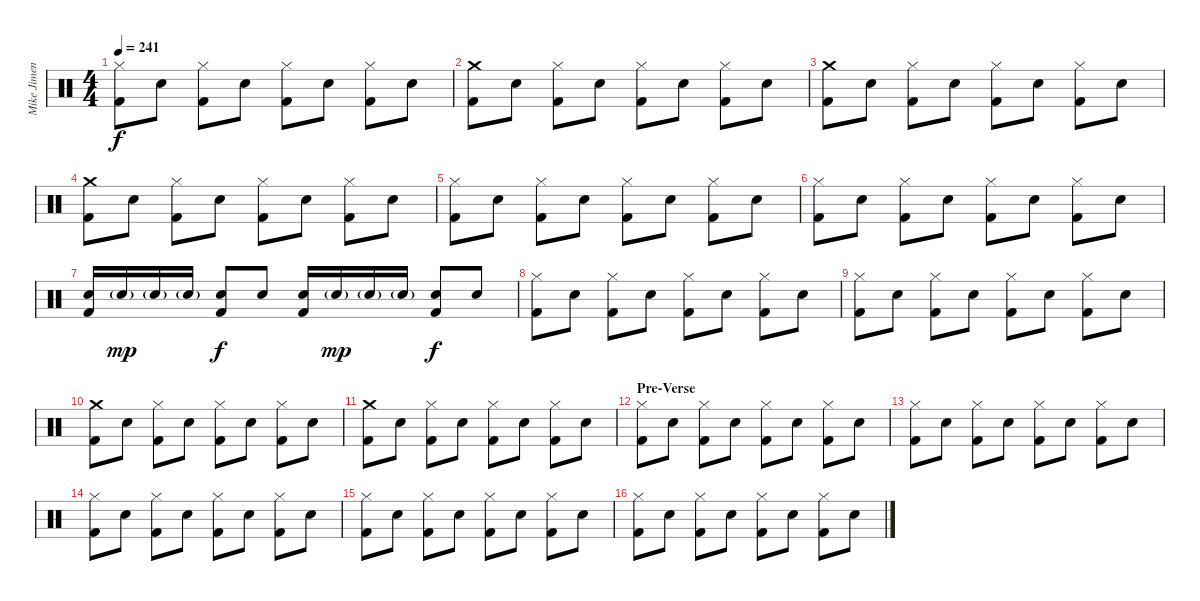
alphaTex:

\track ("Mike Jimenez" "Mike Jimen") {instrument percussion}
\staff {score}
\articulation defaults
\ts (4 4)
\tempo 241
\clef neutral
\ks c
("Hi-Hat (closed)" "Kick (hit) 2").8{dy f} "Electric Snare (hit)".8 ("Hi-Hat (closed)" "Kick (hit) 2").8 "Electric Snare (hit)".8 ("Hi-Hat (closed)" "Kick (hit) 2").8 "Electric Snare (hit)".8 ("Hi-Hat (closed)" "Kick (hit) 2").8 "Electric Snare (hit)".8 |
("Crash medium (hit)" "Kick (hit) 2").8 "Electric Snare (hit)".8 ("Hi-Hat (closed)" "Kick (hit) 2").8 "Electric Snare (hit)".8 ("Hi-Hat (closed)" "Kick (hit) 2").8 "Electric Snare (hit)".8 ("Hi-Hat (closed)" "Kick (hit) 2").8 "Electric Snare (hit)".8 |
("Crash medium (hit)" "Kick (hit) 2").8 "Electric Snare (hit)".8 ("Hi-Hat (closed)" "Kick (hit) 2").8 "Electric Snare (hit)".8 ("Hi-Hat (closed)" "Kick (hit) 2").8 "Electric Snare (hit)".8 ("Hi-Hat (closed)" "Kick (hit) 2").8 "Electric Snare (hit)".8 |
("Crash medium (hit)" "Kick (hit) 2").8 "Electric Snare (hit)".8 ("Hi-Hat (closed)" "Kick (hit) 2").8 "Electric Snare (hit)".8 ("Hi-Hat (closed)" "Kick (hit) 2").8 "Electric Snare (hit)".8 ("Hi-Hat (closed)" "Kick (hit) 2").8 "Electric Snare (hit)".8 |
("Hi-Hat (closed)" "Kick (hit) 2").8 "Electric Snare (hit)".8 ("Hi-Hat (closed)" "Kick (hit) 2").8 "Electric Snare (hit)".8 ("Hi-Hat (closed)" "Kick (hit) 2").8 "Electric Snare (hit)".8 ("Hi-Hat (closed)" "Kick (hit) 2").8 "Electric Snare (hit)".8 |
("Hi-Hat (closed)" "Kick (hit) 2").8 "Electric Snare (hit)".8 ("Hi-Hat (closed)" "Kick (hit) 2").8 "Electric Snare (hit)".8 ("Hi-Hat (closed)" "Kick (hit) 2").8 "Electric Snare (hit)".8 ("Hi-Hat (closed)" "Kick (hit) 2").8 "Electric Snare (hit)".8 |
("Electric Snare (hit)" "Kick (hit) 2").16 "Electric Snare (hit)"{g}.16{dy mp} "Electric Snare (hit)"{g}.16 "Electric Snare (hit)"{g}.16 ("Electric Snare (hit)" "Kick (hit) 2").8{dy f} "Electric Snare (hit)".8 ("Electric Snare (hit)" "Kick (hit) 2").16 "Electric Snare (hit)"{g}.16{dy mp} "Electric Snare (hit)"{g}.16 "Electric Snare (hit)"{g}.16 ("Electric Snare (hit)" "Kick (hit) 2").8{dy f} "Electric Snare (hit)".8 |
("Hi-Hat (closed)" "Kick (hit) 2").8 "Electric Snare (hit)".8 ("Hi-Hat (closed)" "Kick (hit) 2").8 "Electric Snare (hit)".8 ("Hi-Hat (closed)" "Kick (hit) 2").8 "Electric Snare (hit)".8 ("Hi-Hat (closed)" "Kick (hit) 2").8 "Electric Snare (hit)".8 |
("Hi-Hat (closed)" "Kick (hit) 2").8 "Electric Snare (hit)".8 ("Hi-Hat (closed)" "Kick (hit) 2").8 "Electric Snare (hit)".8 ("Hi-Hat (closed)" "Kick (hit) 2").8 "Electric Snare (hit)".8 ("Hi-Hat (closed)" "Kick (hit) 2").8 "Electric Snare (hit)".8 |
("Crash medium (hit)" "Kick (hit) 2").8 "Electric Snare (hit)".8 ("Hi-Hat (closed)" "Kick (hit) 2").8 "Electric Snare (hit)".8 ("Hi-Hat (closed)" "Kick (hit) 2").8 "Electric Snare (hit)".8 ("Hi-Hat (closed)" "Kick (hit) 2").8 "Electric Snare (hit)".8 |
("Crash medium (hit)" "Kick (hit) 2").8 "Electric Snare (hit)".8 ("Hi-Hat (closed)" "Kick (hit) 2").8 "Electric Snare (hit)".8 ("Hi-Hat (closed)" "Kick (hit) 2").8 "Electric Snare (hit)".8 ("Hi-Hat (closed)" "Kick (hit) 2").8 "Electric Snare (hit)".8 |
\section ("" "Pre-Verse")
("Hi-Hat (closed)" "Kick (hit) 2").8 "Electric Snare (hit)".8 ("Hi-Hat (closed)" "Kick (hit) 2").8 "Electric Snare (hit)".8 ("Hi-Hat (closed)" "Kick (hit) 2").8 "Electric Snare (hit)".8 ("Hi-Hat (closed)" "Kick (hit) 2").8 "Electric Snare (hit)".8 |
("Hi-Hat (closed)" "Kick (hit) 2").8 "Electric Snare (hit)".8 ("Hi-Hat (closed)" "Kick (hit) 2").8 "Electric Snare (hit)".8 ("Hi-Hat (closed)" "Kick (hit) 2").8 "Electric Snare (hit)".8 ("Hi-Hat (closed)" "Kick (hit) 2").8 "Electric Snare (hit)".8 |
("Hi-Hat (closed)" "Kick (hit) 2").8 "Electric Snare (hit)".8 ("Hi-Hat (closed)" "Kick (hit) 2").8 "Electric Snare (hit)".8 ("Hi-Hat (closed)" "Kick (hit) 2").8 "Electric Snare (hit)".8 ("Hi-Hat (closed)" "Kick (hit) 2").8 "Electric Snare (hit)".8 |
("Hi-Hat (closed)" "Kick (hit) 2").8 "Electric Snare (hit)".8 ("Hi-Hat (closed)" "Kick (hit) 2").8 "Electric Snare (hit)".8 ("Hi-Hat (closed)" "Kick (hit) 2").8 "Electric Snare (hit)".8 ("Hi-Hat (closed)" "Kick (hit) 2").8 "Electric Snare (hit)".8 |
("Hi-Hat (closed)" "Kick (hit) 2").8 "Electric Snare (hit)".8 ("Hi-Hat (closed)" "Kick (hit) 2").8 "Electric Snare (hit)".8 ("Hi-Hat (closed)" "Kick (hit) 2").8 "Electric Snare (hit)".8 ("Hi-Hat (closed)" "Kick (hit) 2").8 "Electric Snare (hit)".8
